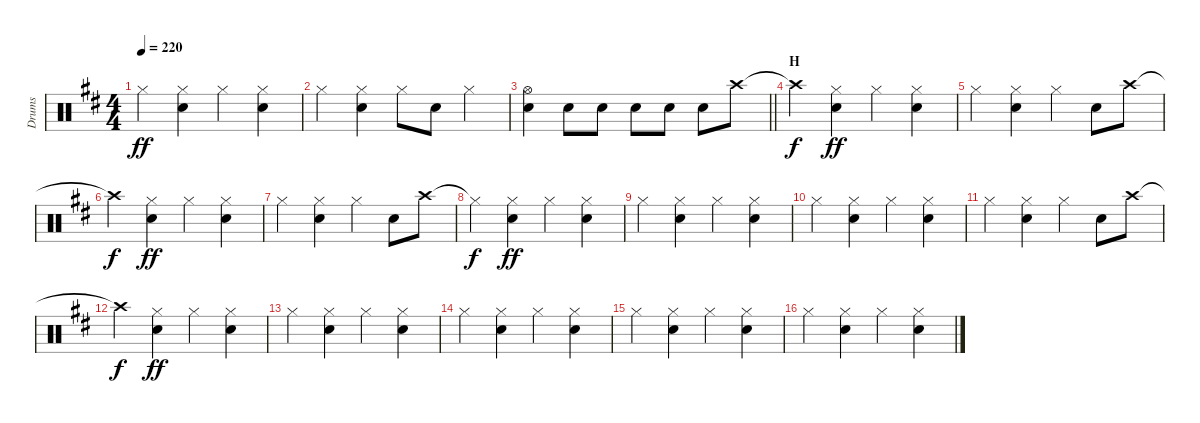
\track ("Drums" "Drums") {instrument percussion}
\staff {score}
\articulation defaults
\ts (4 4)
\tempo 220
\clef neutral
\ks d "Hi-Hat (closed)".4{dy ff}
("Hi-Hat (closed)" "Snare (hit) 2").4 "Hi-Hat (closed)".4 ("Hi-Hat (closed)" "Snare (hit) 2").4 |
"Hi-Hat (closed)".4 ("Hi-Hat (closed)" "Snare (hit) 2").4 "Hi-Hat (closed)".8 "Snare (hit) 2".8 "Hi-Hat (closed)".4 |
\barLineRight lightlight
("Hi-Hat (open)" "Snare (hit) 2").4 "Snare (hit) 2".8 "Snare (hit) 2".8 "Snare (hit) 2".8 "Snare (hit) 2".8 "Snare (hit) 2".8 "Crash high (hit)".8 |
\section ("" "H")
"Crash high (hit)"{t}.4{dy f} ("Hi-Hat (closed)" "Snare (hit) 2").4{dy ff} "Hi-Hat (closed)".4 ("Hi-Hat (closed)" "Snare (hit) 2").4 |
"Hi-Hat (closed)".4 ("Hi-Hat (closed)" "Snare (hit) 2").4 "Hi-Hat (closed)".4 "Snare (hit) 2".8 "Crash high (hit)".8 |
"Crash high (hit)"{t}.4{dy f} ("Hi-Hat (closed)" "Snare (hit) 2").4{dy ff} "Hi-Hat (closed)".4 ("Hi-Hat (closed)" "Snare (hit) 2").4 |
"Hi-Hat (closed)".4 ("Hi-Hat (closed)" "Snare (hit) 2").4 "Hi-Hat (closed)".4 "Snare (hit) 2".8 "Crash high (hit)".8 |
"Hi-Hat (closed)"{t}.4{dy f} ("Hi-Hat (closed)" "Snare (hit) 2").4{dy ff} "Hi-Hat (closed)".4 ("Hi-Hat (closed)" "Snare (hit) 2").4 |
"Hi-Hat (closed)".4 ("Hi-Hat (closed)" "Snare (hit) 2").4 "Hi-Hat (closed)".4 ("Hi-Hat (closed)" "Snare (hit) 2").4 |
"Hi-Hat (closed)".4 ("Hi-Hat (closed)" "Snare (hit) 2").4 "Hi-Hat (closed)".4 ("Hi-Hat (closed)" "Snare (hit) 2").4 |
"Hi-Hat (closed)".4 ("Hi-Hat (closed)" "Snare (hit) 2").4 "Hi-Hat (closed)".4 "Snare (hit) 2".8 "Crash high (hit)".8 |
"Crash high (hit)"{t}.4{dy f} ("Hi-Hat (closed)" "Snare (hit) 2").4{dy ff} "Hi-Hat (closed)".4 ("Hi-Hat (closed)" "Snare (hit) 2").4 |
"Hi-Hat (closed)".4 ("Hi-Hat (closed)" "Snare (hit) 2").4 "Hi-Hat (closed)".4 ("Hi-Hat (closed)" "Snare (hit) 2").4 |
"Hi-Hat (closed)".4 ("Hi-Hat (closed)" "Snare (hit) 2").4 "Hi-Hat (closed)".4 ("Hi-Hat (closed)" "Snare (hit) 2").4 |
"Hi-Hat (closed)".4 ("Hi-Hat (closed)" "Snare (hit) 2").4 "Hi-Hat (closed)".4 ("Hi-Hat (closed)" "Snare (hit) 2").4 |
"Hi-Hat (closed)".4 ("Hi-Hat (closed)" "Snare (hit) 2").4 "Hi-Hat (closed)".4 ("Hi-Hat (closed)" "Snare (hit) 2").4
